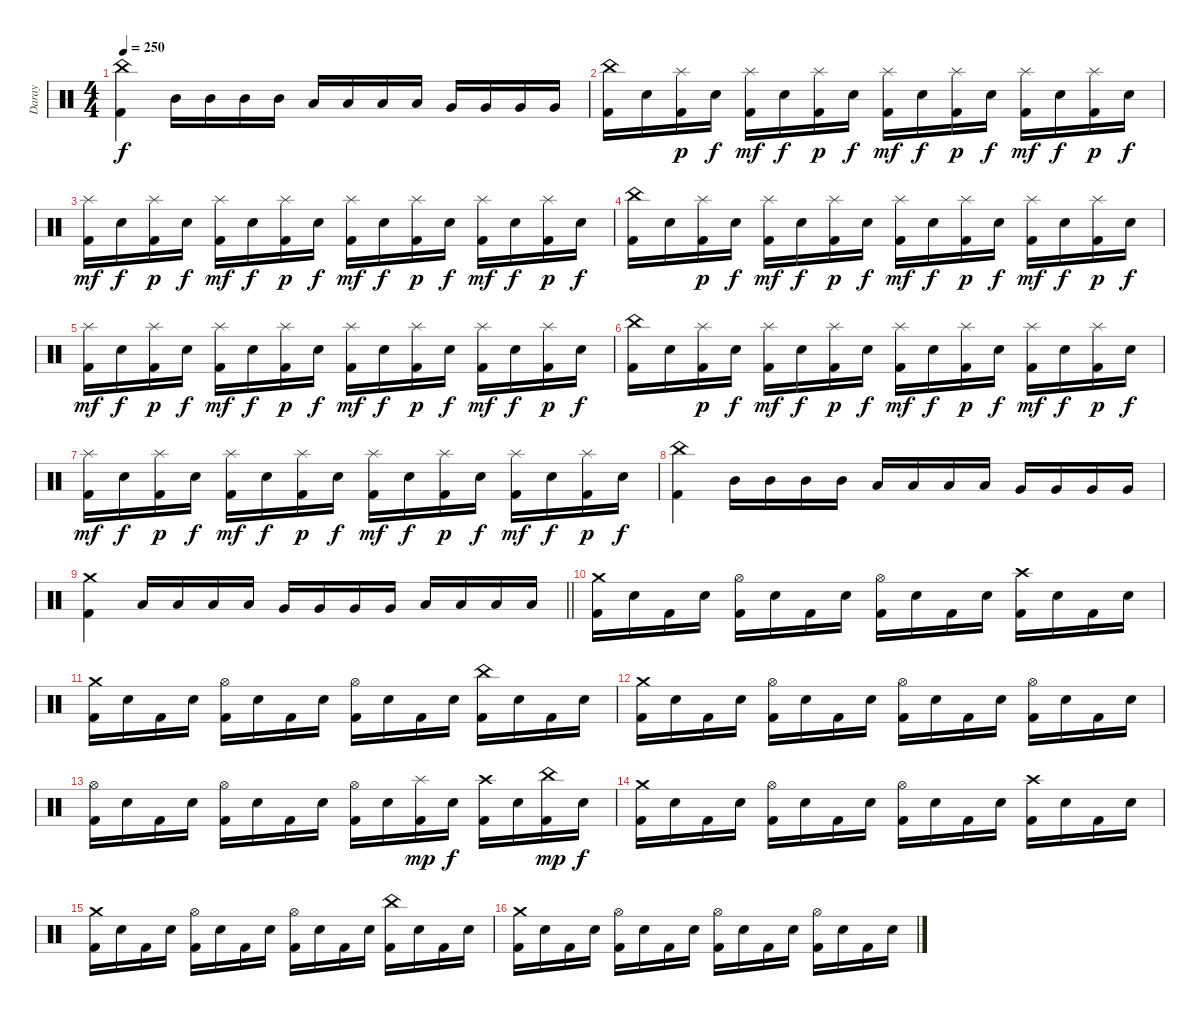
\track ("Daray" "Daray") {instrument percussion}
\staff {score}
\articulation defaults
\ts (4 4)
\tempo 250
\clef neutral
\ks c
("China (hit)" "Kick (hit) 2").4{dy f} "Mid Tom (hit)".16 "Mid Tom (hit)".16 "Mid Tom (hit)".16 "Mid Tom (hit)".16 "Low Tom (hit)".16 "Low Tom (hit)".16 "Low Tom (hit)".16 "Low Tom (hit)".16 "Very Low Tom (hit)".16 "Very Low Tom (hit)".16 "Very Low Tom (hit)".16 "Very Low Tom (hit)".16 |
("China (hit)" "Kick (hit) 2").16 "Electric Snare (hit)".16 ("Splash (hit)" "Kick (hit) 2").16{dy p} "Electric Snare (hit)".16{dy f} ("Splash (hit)" "Kick (hit) 2").16{dy mf} "Electric Snare (hit)".16{dy f} ("Splash (hit)" "Kick (hit) 2").16{dy p} "Electric Snare (hit)".16{dy f} ("Splash (hit)" "Kick (hit) 2").16{dy mf} "Electric Snare (hit)".16{dy f} ("Splash (hit)" "Kick (hit) 2").16{dy p} "Electric Snare (hit)".16{dy f} ("Splash (hit)" "Kick (hit) 2").16{dy mf} "Electric Snare (hit)".16{dy f} ("Splash (hit)" "Kick (hit) 2").16{dy p} "Electric Snare (hit)".16{dy f} |
("Splash (hit)" "Kick (hit) 2").16{dy mf} "Electric Snare (hit)".16{dy f} ("Splash (hit)" "Kick (hit) 2").16{dy p} "Electric Snare (hit)".16{dy f} ("Splash (hit)" "Kick (hit) 2").16{dy mf} "Electric Snare (hit)".16{dy f} ("Splash (hit)" "Kick (hit) 2").16{dy p} "Electric Snare (hit)".16{dy f} ("Splash (hit)" "Kick (hit) 2").16{dy mf} "Electric Snare (hit)".16{dy f} ("Splash (hit)" "Kick (hit) 2").16{dy p} "Electric Snare (hit)".16{dy f} ("Splash (hit)" "Kick (hit) 2").16{dy mf} "Electric Snare (hit)".16{dy f} ("Splash (hit)" "Kick (hit) 2").16{dy p} "Electric Snare (hit)".16{dy f} |
("China (hit)" "Kick (hit) 2").16 "Electric Snare (hit)".16 ("Splash (hit)" "Kick (hit) 2").16{dy p} "Electric Snare (hit)".16{dy f} ("Splash (hit)" "Kick (hit) 2").16{dy mf} "Electric Snare (hit)".16{dy f} ("Splash (hit)" "Kick (hit) 2").16{dy p} "Electric Snare (hit)".16{dy f} ("Splash (hit)" "Kick (hit) 2").16{dy mf} "Electric Snare (hit)".16{dy f} ("Splash (hit)" "Kick (hit) 2").16{dy p} "Electric Snare (hit)".16{dy f} ("Splash (hit)" "Kick (hit) 2").16{dy mf} "Electric Snare (hit)".16{dy f} ("Splash (hit)" "Kick (hit) 2").16{dy p} "Electric Snare (hit)".16{dy f} |
("Splash (hit)" "Kick (hit) 2").16{dy mf} "Electric Snare (hit)".16{dy f} ("Splash (hit)" "Kick (hit) 2").16{dy p} "Electric Snare (hit)".16{dy f} ("Splash (hit)" "Kick (hit) 2").16{dy mf} "Electric Snare (hit)".16{dy f} ("Splash (hit)" "Kick (hit) 2").16{dy p} "Electric Snare (hit)".16{dy f} ("Splash (hit)" "Kick (hit) 2").16{dy mf} "Electric Snare (hit)".16{dy f} ("Splash (hit)" "Kick (hit) 2").16{dy p} "Electric Snare (hit)".16{dy f} ("Splash (hit)" "Kick (hit) 2").16{dy mf} "Electric Snare (hit)".16{dy f} ("Splash (hit)" "Kick (hit) 2").16{dy p} "Electric Snare (hit)".16{dy f} |
("China (hit)" "Kick (hit) 2").16 "Electric Snare (hit)".16 ("Splash (hit)" "Kick (hit) 2").16{dy p} "Electric Snare (hit)".16{dy f} ("Splash (hit)" "Kick (hit) 2").16{dy mf} "Electric Snare (hit)".16{dy f} ("Splash (hit)" "Kick (hit) 2").16{dy p} "Electric Snare (hit)".16{dy f} ("Splash (hit)" "Kick (hit) 2").16{dy mf} "Electric Snare (hit)".16{dy f} ("Splash (hit)" "Kick (hit) 2").16{dy p} "Electric Snare (hit)".16{dy f} ("Splash (hit)" "Kick (hit) 2").16{dy mf} "Electric Snare (hit)".16{dy f} ("Splash (hit)" "Kick (hit) 2").16{dy p} "Electric Snare (hit)".16{dy f} |
("Splash (hit)" "Kick (hit) 2").16{dy mf} "Electric Snare (hit)".16{dy f} ("Splash (hit)" "Kick (hit) 2").16{dy p} "Electric Snare (hit)".16{dy f} ("Splash (hit)" "Kick (hit) 2").16{dy mf} "Electric Snare (hit)".16{dy f} ("Splash (hit)" "Kick (hit) 2").16{dy p} "Electric Snare (hit)".16{dy f} ("Splash (hit)" "Kick (hit) 2").16{dy mf} "Electric Snare (hit)".16{dy f} ("Splash (hit)" "Kick (hit) 2").16{dy p} "Electric Snare (hit)".16{dy f} ("Splash (hit)" "Kick (hit) 2").16{dy mf} "Electric Snare (hit)".16{dy f} ("Splash (hit)" "Kick (hit) 2").16{dy p} "Electric Snare (hit)".16{dy f} |
("China (hit)" "Kick (hit) 2").4 "Mid Tom (hit)".16 "Mid Tom (hit)".16 "Mid Tom (hit)".16 "Mid Tom (hit)".16 "Low Tom (hit)".16 "Low Tom (hit)".16 "Low Tom (hit)".16 "Low Tom (hit)".16 "Very Low Tom (hit)".16 "Very Low Tom (hit)".16 "Very Low Tom (hit)".16 "Very Low Tom (hit)".16 |
\barLineRight lightlight
("Crash medium (hit)" "Kick (hit) 2").4 "Low Tom (hit)".16 "Low Tom (hit)".16 "Low Tom (hit)".16 "Low Tom (hit)".16 "Very Low Tom (hit)".16 "Very Low Tom (hit)".16 "Very Low Tom (hit)".16 "Very Low Tom (hit)".16 "Low Floor Tom (hit)".16 "Low Floor Tom (hit)".16 "Low Floor Tom (hit)".16 "Low Floor Tom (hit)".16 |
("Crash medium (hit)" "Kick (hit) 2").16 "Electric Snare (hit)".16 "Kick (hit) 2".16 "Electric Snare (hit)".16 ("Hi-Hat (open)" "Kick (hit) 2").16 "Electric Snare (hit)".16 "Kick (hit) 2".16 "Electric Snare (hit)".16 ("Hi-Hat (open)" "Kick (hit) 2").16 "Electric Snare (hit)".16 "Kick (hit) 2".16 "Electric Snare (hit)".16 ("Crash high (hit)" "Kick (hit) 2").16 "Electric Snare (hit)".16 "Kick (hit) 2".16 "Electric Snare (hit)".16 |
("Crash medium (hit)" "Kick (hit) 2").16 "Electric Snare (hit)".16 "Kick (hit) 2".16 "Electric Snare (hit)".16 ("Hi-Hat (open)" "Kick (hit) 2").16 "Electric Snare (hit)".16 "Kick (hit) 2".16 "Electric Snare (hit)".16 ("Hi-Hat (open)" "Kick (hit) 2").16 "Electric Snare (hit)".16 "Kick (hit) 2".16 "Electric Snare (hit)".16 ("China (hit)" "Kick (hit) 2").16 "Electric Snare (hit)".16 "Kick (hit) 2".16 "Electric Snare (hit)".16 |
("Crash medium (hit)" "Kick (hit) 2").16 "Electric Snare (hit)".16 "Kick (hit) 2".16 "Electric Snare (hit)".16 ("Hi-Hat (open)" "Kick (hit) 2").16 "Electric Snare (hit)".16 "Kick (hit) 2".16 "Electric Snare (hit)".16 ("Hi-Hat (open)" "Kick (hit) 2").16 "Electric Snare (hit)".16 "Kick (hit) 2".16 "Electric Snare (hit)".16 ("Hi-Hat (open)" "Kick (hit) 2").16 "Electric Snare (hit)".16 "Kick (hit) 2".16 "Electric Snare (hit)".16 |
("Hi-Hat (open)" "Kick (hit) 2").16 "Electric Snare (hit)".16 "Kick (hit) 2".16 "Electric Snare (hit)".16 ("Hi-Hat (open)" "Kick (hit) 2").16 "Electric Snare (hit)".16 "Kick (hit) 2".16 "Electric Snare (hit)".16 ("Hi-Hat (open)" "Kick (hit) 2").16 "Electric Snare (hit)".16 ("Splash (hit)" "Kick (hit) 2").16{dy mp} "Electric Snare (hit)".16{dy f} ("Crash high (hit)" "Kick (hit) 2").16 "Electric Snare (hit)".16 ("China (hit)" "Kick (hit) 2").16{dy mp} "Electric Snare (hit)".16{dy f} |
("Crash medium (hit)" "Kick (hit) 2").16 "Electric Snare (hit)".16 "Kick (hit) 2".16 "Electric Snare (hit)".16 ("Hi-Hat (open)" "Kick (hit) 2").16 "Electric Snare (hit)".16 "Kick (hit) 2".16 "Electric Snare (hit)".16 ("Hi-Hat (open)" "Kick (hit) 2").16 "Electric Snare (hit)".16 "Kick (hit) 2".16 "Electric Snare (hit)".16 ("Crash high (hit)" "Kick (hit) 2").16 "Electric Snare (hit)".16 "Kick (hit) 2".16 "Electric Snare (hit)".16 |
("Crash medium (hit)" "Kick (hit) 2").16 "Electric Snare (hit)".16 "Kick (hit) 2".16 "Electric Snare (hit)".16 ("Hi-Hat (open)" "Kick (hit) 2").16 "Electric Snare (hit)".16 "Kick (hit) 2".16 "Electric Snare (hit)".16 ("Hi-Hat (open)" "Kick (hit) 2").16 "Electric Snare (hit)".16 "Kick (hit) 2".16 "Electric Snare (hit)".16 ("China (hit)" "Kick (hit) 2").16 "Electric Snare (hit)".16 "Kick (hit) 2".16 "Electric Snare (hit)".16 |
("Crash medium (hit)" "Kick (hit) 2").16 "Electric Snare (hit)".16 "Kick (hit) 2".16 "Electric Snare (hit)".16 ("Hi-Hat (open)" "Kick (hit) 2").16 "Electric Snare (hit)".16 "Kick (hit) 2".16 "Electric Snare (hit)".16 ("Hi-Hat (open)" "Kick (hit) 2").16 "Electric Snare (hit)".16 "Kick (hit) 2".16 "Electric Snare (hit)".16 ("Hi-Hat (open)" "Kick (hit) 2").16 "Electric Snare (hit)".16 "Kick (hit) 2".16 "Electric Snare (hit)".16
